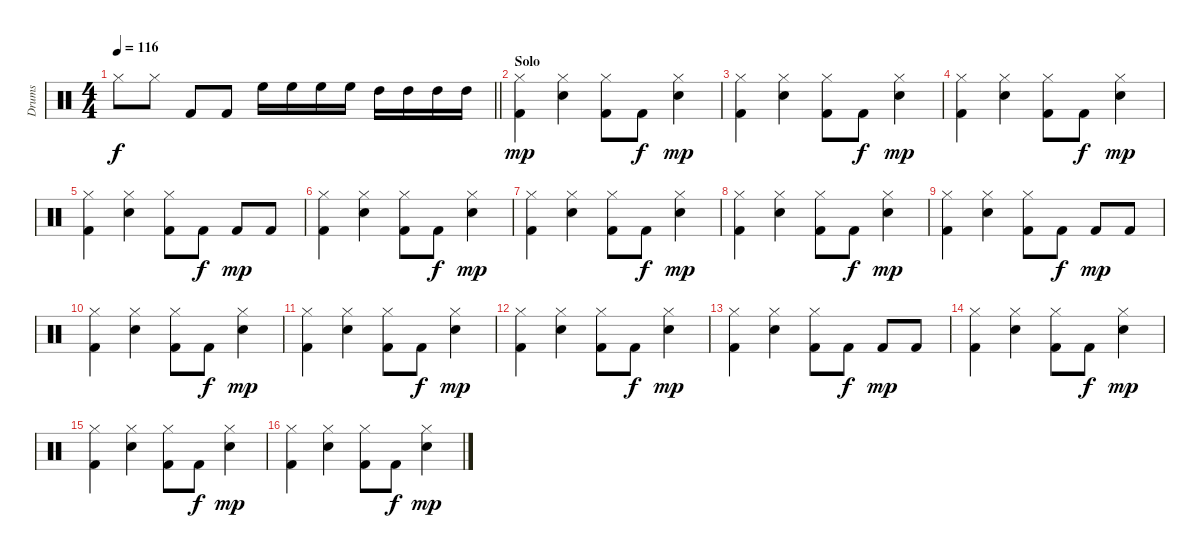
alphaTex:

\track ("Drums" "Drums") {instrument percussion}
\staff {score}
\articulation defaults
\ts (4 4)
\tempo 116
\clef neutral
\barLineRight lightlight
\ks c "Hi-Hat (closed)".8{dy f} "Hi-Hat (closed)".8 "Kick (hit) 2".8 "Kick (hit) 2".8 "High Floor Tom (hit)".16 "High Floor Tom (hit)".16 "High Floor Tom (hit)".16 "High Floor Tom (hit)".16 "High Tom (hit)".16 "High Tom (hit)".16 "High Tom (hit)".16 "High Tom (hit)".16
|
\section ("" "Solo")
("Hi-Hat (closed)" "Kick (hit) 2").4{dy mp} ("Hi-Hat (closed)" "Snare (hit) 2").4 ("Hi-Hat (closed)" "Kick (hit) 2").8 "Kick (hit) 2".8{dy f} ("Hi-Hat (closed)" "Snare (hit) 2").4{dy mp} |
("Hi-Hat (closed)" "Kick (hit) 2").4 ("Hi-Hat (closed)" "Snare (hit) 2").4 ("Hi-Hat (closed)" "Kick (hit) 2").8 "Kick (hit) 2".8{dy f} ("Hi-Hat (closed)" "Snare (hit) 2").4{dy mp} |
("Hi-Hat (closed)" "Kick (hit) 2").4 ("Hi-Hat (closed)" "Snare (hit) 2").4 ("Hi-Hat (closed)" "Kick (hit) 2").8 "Kick (hit) 2".8{dy f} ("Hi-Hat (closed)" "Snare (hit) 2").4{dy mp} |
("Hi-Hat (closed)" "Kick (hit) 2").4 ("Hi-Hat (closed)" "Snare (hit) 2").4 ("Hi-Hat (closed)" "Kick (hit) 2").8 "Kick (hit) 2".8{dy f} "Kick (hit) 2".8{dy mp} "Kick (hit) 2".8 |
("Hi-Hat (closed)" "Kick (hit) 2").4 ("Hi-Hat (closed)" "Snare (hit) 2").4 ("Hi-Hat (closed)" "Kick (hit) 2").8 "Kick (hit) 2".8{dy f} ("Hi-Hat (closed)" "Snare (hit) 2").4{dy mp} |
("Hi-Hat (closed)" "Kick (hit) 2").4 ("Hi-Hat (closed)" "Snare (hit) 2").4 ("Hi-Hat (closed)" "Kick (hit) 2").8 "Kick (hit) 2".8{dy f} ("Hi-Hat (closed)" "Snare (hit) 2").4{dy mp} |
("Hi-Hat (closed)" "Kick (hit) 2").4 ("Hi-Hat (closed)" "Snare (hit) 2").4 ("Hi-Hat (closed)" "Kick (hit) 2").8 "Kick (hit) 2".8{dy f} ("Hi-Hat (closed)" "Snare (hit) 2").4{dy mp} |
("Hi-Hat (closed)" "Kick (hit) 2").4 ("Hi-Hat (closed)" "Snare (hit) 2").4 ("Hi-Hat (closed)" "Kick (hit) 2").8 "Kick (hit) 2".8{dy f} "Kick (hit) 2".8{dy mp} "Kick (hit) 2".8 |
("Hi-Hat (closed)" "Kick (hit) 2").4 ("Hi-Hat (closed)" "Snare (hit) 2").4 ("Hi-Hat (closed)" "Kick (hit) 2").8 "Kick (hit) 2".8{dy f} ("Hi-Hat (closed)" "Snare (hit) 2").4{dy mp} |
("Hi-Hat (closed)" "Kick (hit) 2").4 ("Hi-Hat (closed)" "Snare (hit) 2").4 ("Hi-Hat (closed)" "Kick (hit) 2").8 "Kick (hit) 2".8{dy f} ("Hi-Hat (closed)" "Snare (hit) 2").4{dy mp} |
("Hi-Hat (closed)" "Kick (hit) 2").4 ("Hi-Hat (closed)" "Snare (hit) 2").4 ("Hi-Hat (closed)" "Kick (hit) 2").8 "Kick (hit) 2".8{dy f} ("Hi-Hat (closed)" "Snare (hit) 2").4{dy mp} |
("Hi-Hat (closed)" "Kick (hit) 2").4 ("Hi-Hat (closed)" "Snare (hit) 2").4 ("Hi-Hat (closed)" "Kick (hit) 2").8 "Kick (hit) 2".8{dy f} "Kick (hit) 2".8{dy mp} "Kick (hit) 2".8 |
("Hi-Hat (closed)" "Kick (hit) 2").4 ("Hi-Hat (closed)" "Snare (hit) 2").4 ("Hi-Hat (closed)" "Kick (hit) 2").8 "Kick (hit) 2".8{dy f} ("Hi-Hat (closed)" "Snare (hit) 2").4{dy mp} |
("Hi-Hat (closed)" "Kick (hit) 2").4 ("Hi-Hat (closed)" "Snare (hit) 2").4 ("Hi-Hat (closed)" "Kick (hit) 2").8 "Kick (hit) 2".8{dy f} ("Hi-Hat (closed)" "Snare (hit) 2").4{dy mp} |
("Hi-Hat (closed)" "Kick (hit) 2").4 ("Hi-Hat (closed)" "Snare (hit) 2").4 ("Hi-Hat (closed)" "Kick (hit) 2").8 "Kick (hit) 2".8{dy f} ("Hi-Hat (closed)" "Snare (hit) 2").4{dy mp}
